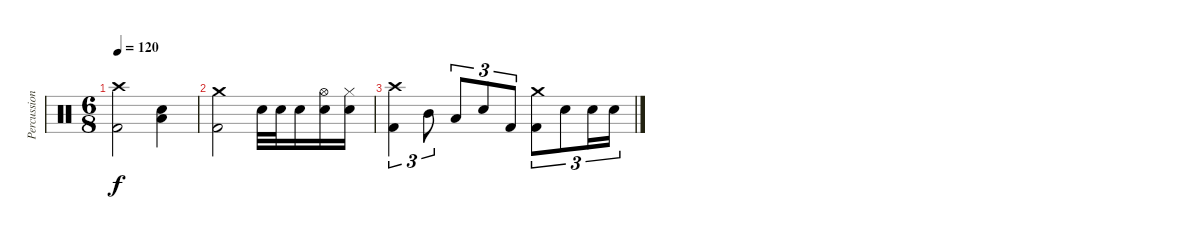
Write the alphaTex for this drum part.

\track ("Percussion" "Percussion") {instrument percussion}
\staff {score}
\articulation defaults
\ts (6 8)
\tempo 120
\clef neutral
\ks c
("Crash high (hit)" "Kick (hit) 2").2{dy f} ("Low Floor Tom (hit)" "Electric Snare (hit)").4 |
("Crash medium (hit)" "Kick (hit) 2").2 "Electric Snare (hit)".32 "Electric Snare (hit)".32 "Electric Snare (hit)".16 ("Hi-Hat (open)" "Electric Snare (hit)").16 ("Hi-Hat (closed)" "Electric Snare (hit)").16 |
("Crash high (hit)" "Kick (hit) 2").4{tu (3 2)} "Mid Tom (hit)".8{tu (3 2)} "Low Tom (hit)".8{tu (3 2)} "Electric Snare (hit)".8{tu (3 2)} "Kick (hit) 2".8{tu (3 2)} ("Crash medium (hit)" "Kick (hit) 2").8{tu (3 2)} "Electric Snare (hit)".8{tu (3 2)} "Electric Snare (hit)".16{tu (3 2)} "Electric Snare (hit)".16{tu (3 2)}
